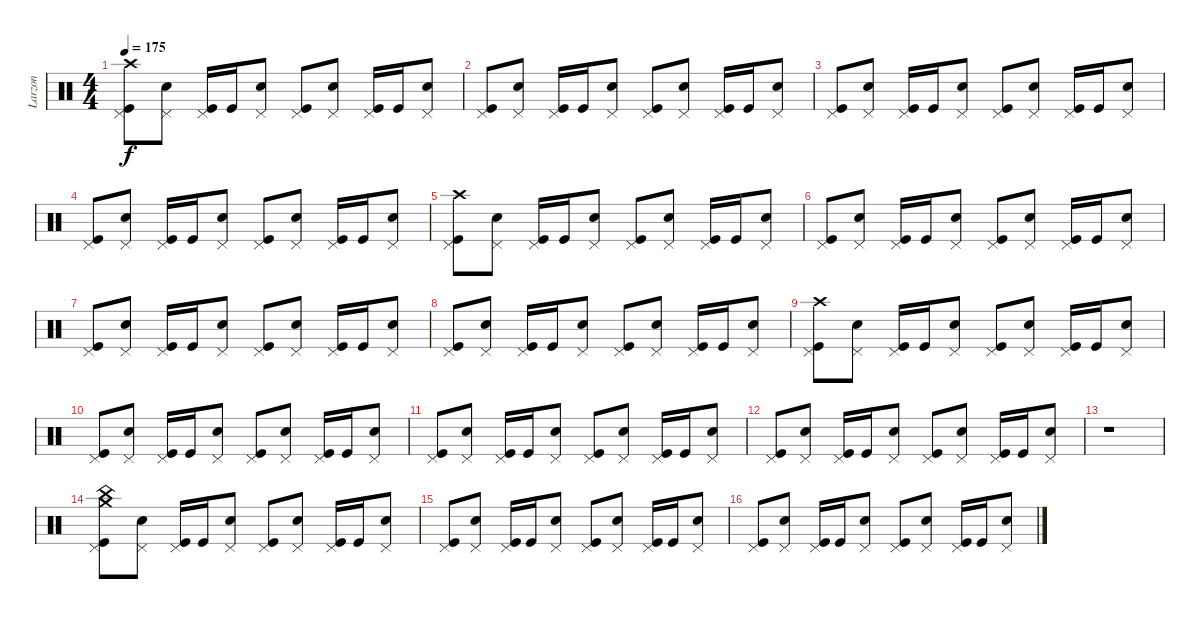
\track ("Larzon" "Larzon") {instrument percussion}
\staff {score}
\articulation defaults
\ts (4 4)
\tempo 175
\clef neutral
\ks c
("Crash high (hit)" "Kick (hit)" "Pedal Hi-Hat (hit)").8{dy f} ("Snare (hit) 2" "Pedal Hi-Hat (hit)").8 ("Kick (hit)" "Pedal Hi-Hat (hit)").16 "Kick (hit)".16 ("Snare (hit) 2" "Pedal Hi-Hat (hit)").8 ("Kick (hit)" "Pedal Hi-Hat (hit)").8 ("Snare (hit) 2" "Pedal Hi-Hat (hit)").8 ("Kick (hit)" "Pedal Hi-Hat (hit)").16 "Kick (hit)".16 ("Snare (hit) 2" "Pedal Hi-Hat (hit)").8 |
("Kick (hit)" "Pedal Hi-Hat (hit)").8 ("Snare (hit) 2" "Pedal Hi-Hat (hit)").8 ("Kick (hit)" "Pedal Hi-Hat (hit)").16 "Kick (hit)".16 ("Snare (hit) 2" "Pedal Hi-Hat (hit)").8 ("Kick (hit)" "Pedal Hi-Hat (hit)").8 ("Snare (hit) 2" "Pedal Hi-Hat (hit)").8 ("Kick (hit)" "Pedal Hi-Hat (hit)").16 "Kick (hit)".16 ("Snare (hit) 2" "Pedal Hi-Hat (hit)").8 |
("Kick (hit)" "Pedal Hi-Hat (hit)").8 ("Snare (hit) 2" "Pedal Hi-Hat (hit)").8 ("Kick (hit)" "Pedal Hi-Hat (hit)").16 "Kick (hit)".16 ("Snare (hit) 2" "Pedal Hi-Hat (hit)").8 ("Kick (hit)" "Pedal Hi-Hat (hit)").8 ("Snare (hit) 2" "Pedal Hi-Hat (hit)").8 ("Kick (hit)" "Pedal Hi-Hat (hit)").16 "Kick (hit)".16 ("Snare (hit) 2" "Pedal Hi-Hat (hit)").8 |
("Kick (hit)" "Pedal Hi-Hat (hit)").8 ("Snare (hit) 2" "Pedal Hi-Hat (hit)").8 ("Kick (hit)" "Pedal Hi-Hat (hit)").16 "Kick (hit)".16 ("Snare (hit) 2" "Pedal Hi-Hat (hit)").8 ("Kick (hit)" "Pedal Hi-Hat (hit)").8 ("Snare (hit) 2" "Pedal Hi-Hat (hit)").8 ("Kick (hit)" "Pedal Hi-Hat (hit)").16 "Kick (hit)".16 ("Snare (hit) 2" "Pedal Hi-Hat (hit)").8 |
("Crash high (hit)" "Kick (hit)" "Pedal Hi-Hat (hit)").8 ("Snare (hit) 2" "Pedal Hi-Hat (hit)").8 ("Kick (hit)" "Pedal Hi-Hat (hit)").16 "Kick (hit)".16 ("Snare (hit) 2" "Pedal Hi-Hat (hit)").8 ("Kick (hit)" "Pedal Hi-Hat (hit)").8 ("Snare (hit) 2" "Pedal Hi-Hat (hit)").8 ("Kick (hit)" "Pedal Hi-Hat (hit)").16 "Kick (hit)".16 ("Snare (hit) 2" "Pedal Hi-Hat (hit)").8 |
("Kick (hit)" "Pedal Hi-Hat (hit)").8 ("Snare (hit) 2" "Pedal Hi-Hat (hit)").8 ("Kick (hit)" "Pedal Hi-Hat (hit)").16 "Kick (hit)".16 ("Snare (hit) 2" "Pedal Hi-Hat (hit)").8 ("Kick (hit)" "Pedal Hi-Hat (hit)").8 ("Snare (hit) 2" "Pedal Hi-Hat (hit)").8 ("Kick (hit)" "Pedal Hi-Hat (hit)").16 "Kick (hit)".16 ("Snare (hit) 2" "Pedal Hi-Hat (hit)").8 |
("Kick (hit)" "Pedal Hi-Hat (hit)").8 ("Snare (hit) 2" "Pedal Hi-Hat (hit)").8 ("Kick (hit)" "Pedal Hi-Hat (hit)").16 "Kick (hit)".16 ("Snare (hit) 2" "Pedal Hi-Hat (hit)").8 ("Kick (hit)" "Pedal Hi-Hat (hit)").8 ("Snare (hit) 2" "Pedal Hi-Hat (hit)").8 ("Kick (hit)" "Pedal Hi-Hat (hit)").16 "Kick (hit)".16 ("Snare (hit) 2" "Pedal Hi-Hat (hit)").8 |
("Kick (hit)" "Pedal Hi-Hat (hit)").8 ("Snare (hit) 2" "Pedal Hi-Hat (hit)").8 ("Kick (hit)" "Pedal Hi-Hat (hit)").16 "Kick (hit)".16 ("Snare (hit) 2" "Pedal Hi-Hat (hit)").8 ("Kick (hit)" "Pedal Hi-Hat (hit)").8 ("Snare (hit) 2" "Pedal Hi-Hat (hit)").8 ("Kick (hit)" "Pedal Hi-Hat (hit)").16 "Kick (hit)".16 ("Snare (hit) 2" "Pedal Hi-Hat (hit)").8 |
("Crash high (hit)" "Kick (hit)" "Pedal Hi-Hat (hit)").8 ("Snare (hit) 2" "Pedal Hi-Hat (hit)").8 ("Kick (hit)" "Pedal Hi-Hat (hit)").16 "Kick (hit)".16 ("Snare (hit) 2" "Pedal Hi-Hat (hit)").8 ("Kick (hit)" "Pedal Hi-Hat (hit)").8 ("Snare (hit) 2" "Pedal Hi-Hat (hit)").8 ("Kick (hit)" "Pedal Hi-Hat (hit)").16 "Kick (hit)".16 ("Snare (hit) 2" "Pedal Hi-Hat (hit)").8 |
("Kick (hit)" "Pedal Hi-Hat (hit)").8 ("Snare (hit) 2" "Pedal Hi-Hat (hit)").8 ("Kick (hit)" "Pedal Hi-Hat (hit)").16 "Kick (hit)".16 ("Snare (hit) 2" "Pedal Hi-Hat (hit)").8 ("Kick (hit)" "Pedal Hi-Hat (hit)").8 ("Snare (hit) 2" "Pedal Hi-Hat (hit)").8 ("Kick (hit)" "Pedal Hi-Hat (hit)").16 "Kick (hit)".16 ("Snare (hit) 2" "Pedal Hi-Hat (hit)").8 |
("Kick (hit)" "Pedal Hi-Hat (hit)").8 ("Snare (hit) 2" "Pedal Hi-Hat (hit)").8 ("Kick (hit)" "Pedal Hi-Hat (hit)").16 "Kick (hit)".16 ("Snare (hit) 2" "Pedal Hi-Hat (hit)").8 ("Kick (hit)" "Pedal Hi-Hat (hit)").8 ("Snare (hit) 2" "Pedal Hi-Hat (hit)").8 ("Kick (hit)" "Pedal Hi-Hat (hit)").16 "Kick (hit)".16 ("Snare (hit) 2" "Pedal Hi-Hat (hit)").8 |
("Kick (hit)" "Pedal Hi-Hat (hit)").8 ("Snare (hit) 2" "Pedal Hi-Hat (hit)").8 ("Kick (hit)" "Pedal Hi-Hat (hit)").16 "Kick (hit)".16 ("Snare (hit) 2" "Pedal Hi-Hat (hit)").8 ("Kick (hit)" "Pedal Hi-Hat (hit)").8 ("Snare (hit) 2" "Pedal Hi-Hat (hit)").8 ("Kick (hit)" "Pedal Hi-Hat (hit)").16 "Kick (hit)".16 ("Snare (hit) 2" "Pedal Hi-Hat (hit)").8 |
r.1 |
("Kick (hit)" "Pedal Hi-Hat (hit)" "Crash medium (hit)" "China (hit)").8 ("Snare (hit) 2" "Pedal Hi-Hat (hit)").8 ("Kick (hit)" "Pedal Hi-Hat (hit)").16 "Kick (hit)".16 ("Snare (hit) 2" "Pedal Hi-Hat (hit)").8 ("Pedal Hi-Hat (hit)" "Kick (hit)").8 ("Snare (hit) 2" "Pedal Hi-Hat (hit)").8 ("Kick (hit)" "Pedal Hi-Hat (hit)").16 "Kick (hit)".16 ("Snare (hit) 2" "Pedal Hi-Hat (hit)").8 |
("Pedal Hi-Hat (hit)" "Kick (hit)").8 ("Snare (hit) 2" "Pedal Hi-Hat (hit)").8 ("Kick (hit)" "Pedal Hi-Hat (hit)").16 "Kick (hit)".16 ("Snare (hit) 2" "Pedal Hi-Hat (hit)").8 ("Kick (hit)" "Pedal Hi-Hat (hit)").8 ("Snare (hit) 2" "Pedal Hi-Hat (hit)").8 ("Kick (hit)" "Pedal Hi-Hat (hit)").16 "Kick (hit)".16 ("Snare (hit) 2" "Pedal Hi-Hat (hit)").8 |
("Pedal Hi-Hat (hit)" "Kick (hit)").8 ("Snare (hit) 2" "Pedal Hi-Hat (hit)").8 ("Kick (hit)" "Pedal Hi-Hat (hit)").16 "Kick (hit)".16 ("Snare (hit) 2" "Pedal Hi-Hat (hit)").8 ("Kick (hit)" "Pedal Hi-Hat (hit)").8 ("Snare (hit) 2" "Pedal Hi-Hat (hit)").8 ("Kick (hit)" "Pedal Hi-Hat (hit)").16 "Kick (hit)".16 ("Snare (hit) 2" "Pedal Hi-Hat (hit)").8
